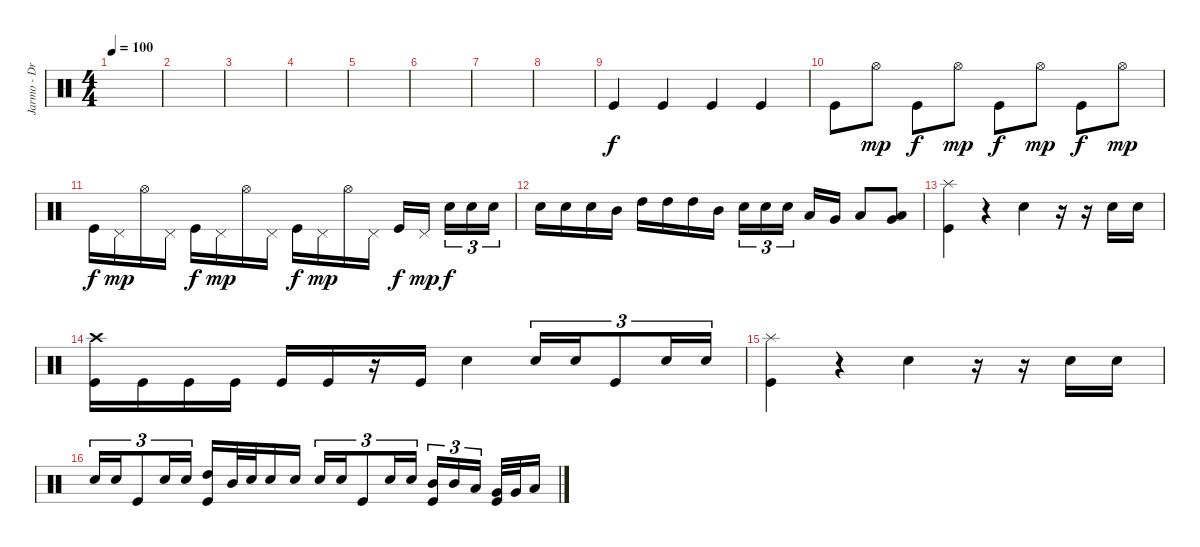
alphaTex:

\track ("Jarmo - Drums" "Jarmo - Dr") {instrument percussion}
\staff {score}
\articulation defaults
\ts (4 4)
\tempo 100
\clef neutral
\ks c
|
|
|
|
|
|
|
|
"Kick (hit)".4 "Kick (hit)".4 "Kick (hit)".4 "Kick (hit)".4 |
"Kick (hit)".8 "Hi-Hat (open)".8{dy mp} "Kick (hit)".8{dy f} "Hi-Hat (open)".8{dy mp} "Kick (hit)".8{dy f} "Hi-Hat (open)".8{dy mp} "Kick (hit)".8{dy f} "Hi-Hat (open)".8{dy mp} |
"Kick (hit)".16{dy f} "Pedal Hi-Hat (hit)".16{dy mp} "Hi-Hat (open)".16 "Pedal Hi-Hat (hit)".16 "Kick (hit)".16{dy f} "Pedal Hi-Hat (hit)".16{dy mp} "Hi-Hat (open)".16 "Pedal Hi-Hat (hit)".16 "Kick (hit)".16{dy f} "Pedal Hi-Hat (hit)".16{dy mp} "Hi-Hat (open)".16 "Pedal Hi-Hat (hit)".16 "Kick (hit)".16{dy f} "Pedal Hi-Hat (hit)".16{dy mp} "Electric Snare (hit)".16{tu (3 2) dy f} "Electric Snare (hit)".16{tu (3 2)} "Electric Snare (hit)".16{tu (3 2)} |
"Electric Snare (hit)".16 "Electric Snare (hit)".16 "Electric Snare (hit)".16 "Mid Tom (hit)".16 "High Tom (hit)".16 "High Tom (hit)".16 "High Tom (hit)".16 "Mid Tom (hit)".16 "Electric Snare (hit)".16{tu (3 2)} "Electric Snare (hit)".16{tu (3 2)} "Electric Snare (hit)".16{tu (3 2)} "Low Tom (hit)".16 "Very Low Tom (hit)".16 "Low Floor Tom (hit)".8 ("Low Floor Tom (hit)" "Very Low Tom (hit)").8 |
("Kick (hit)" "Splash (hit)").4 r.4 "Electric Snare (hit)".4 r.16 r.16 "Electric Snare (hit)".16 "Electric Snare (hit)".16 |
("Kick (hit)" "Crash high (hit)").16 "Kick (hit)".16 "Kick (hit)".16 "Kick (hit)".16 "Kick (hit)".16 "Kick (hit)".16 r.16 "Kick (hit)".16 "Electric Snare (hit)".4 "Electric Snare (hit)".16{tu (3 2)} "Electric Snare (hit)".16{tu (3 2)} "Kick (hit)".8{tu (3 2)} "Electric Snare (hit)".16{tu (3 2)} "Electric Snare (hit)".16{tu (3 2)} |
("Kick (hit)" "Splash (hit)").4 r.4 "Electric Snare (hit)".4 r.16 r.16 "Electric Snare (hit)".16 "Electric Snare (hit)".16 |
"Electric Snare (hit)".16{tu (3 2)} "Electric Snare (hit)".16{tu (3 2)} "Kick (hit)".8{tu (3 2)} "Electric Snare (hit)".16{tu (3 2)} "Electric Snare (hit)".16{tu (3 2)} ("Kick (hit)" "High Tom (hit)").16 "Mid Tom (hit)".32 "Electric Snare (hit)".32 "Electric Snare (hit)".16 "Electric Snare (hit)".16 "Electric Snare (hit)".16{tu (3 2)} "Electric Snare (hit)".16{tu (3 2)} "Kick (hit)".8{tu (3 2)} "Electric Snare (hit)".16{tu (3 2)} "Electric Snare (hit)".16{tu (3 2)} ("Kick (hit)" "Mid Tom (hit)").16{tu (3 2)} "Mid Tom (hit)".16{tu (3 2)} "Low Tom (hit)".16{tu (3 2)} ("Kick (hit)" "Very Low Tom (hit)").32 "Very Low Tom (hit)".32 "Low Floor Tom (hit)".16
